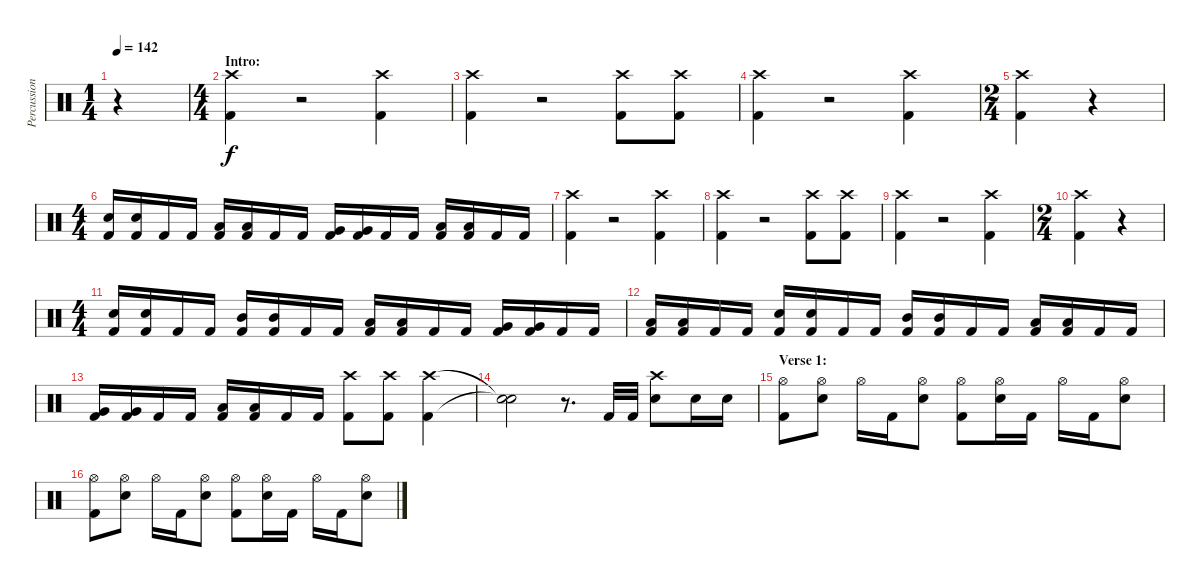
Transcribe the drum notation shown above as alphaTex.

\track ("Percussion" "Percussion") {instrument percussion}
\staff {score}
\articulation defaults
\ts (1 4)
\tempo 142
\clef neutral
\ks c
r.4{dy f} |
\ts (4 4)
\section ("" "Intro:")
("Crash high (hit)" "Kick (hit) 2").4 r.2 ("Crash high (hit)" "Kick (hit) 2").4 |
("Crash high (hit)" "Kick (hit) 2").4 r.2 ("Crash high (hit)" "Kick (hit) 2").8 ("Crash high (hit)" "Kick (hit) 2").8 |
("Crash high (hit)" "Kick (hit) 2").4 r.2 ("Crash high (hit)" "Kick (hit) 2").4 |
\ts (2 4)
("Crash high (hit)" "Kick (hit) 2").4 r.4 |
\ts (4 4)
("Snare (hit) 2" "Kick (hit) 2").16 ("Snare (hit) 2" "Kick (hit) 2").16 "Kick (hit) 2".16 "Kick (hit) 2".16 ("Low Tom (hit)" "Kick (hit) 2").16 ("Low Tom (hit)" "Kick (hit) 2").16 "Kick (hit) 2".16 "Kick (hit) 2".16 ("Very Low Tom (hit)" "Kick (hit) 2").16 ("Very Low Tom (hit)" "Kick (hit) 2").16 "Kick (hit) 2".16 "Kick (hit) 2".16 ("Low Floor Tom (hit)" "Kick (hit) 2").16 ("Low Floor Tom (hit)" "Kick (hit) 2").16 "Kick (hit) 2".16 "Kick (hit) 2".16 |
("Crash high (hit)" "Kick (hit) 2").4 r.2 ("Crash high (hit)" "Kick (hit) 2").4 |
("Crash high (hit)" "Kick (hit) 2").4 r.2 ("Crash high (hit)" "Kick (hit) 2").8 ("Crash high (hit)" "Kick (hit) 2").8 |
("Crash high (hit)" "Kick (hit) 2").4 r.2 ("Crash high (hit)" "Kick (hit) 2").4 |
\ts (2 4)
("Crash high (hit)" "Kick (hit) 2").4 r.4 |
\ts (4 4)
("Snare (hit) 2" "Kick (hit) 2").16 ("Snare (hit) 2" "Kick (hit) 2").16 "Kick (hit) 2".16 "Kick (hit) 2".16 ("Mid Tom (hit)" "Kick (hit) 2").16 ("Mid Tom (hit)" "Kick (hit) 2").16 "Kick (hit) 2".16 "Kick (hit) 2".16 ("Low Tom (hit)" "Kick (hit) 2").16 ("Low Tom (hit)" "Kick (hit) 2").16 "Kick (hit) 2".16 "Kick (hit) 2".16 ("Very Low Tom (hit)" "Kick (hit) 2").16 ("Very Low Tom (hit)" "Kick (hit) 2").16 "Kick (hit) 2".16 "Kick (hit) 2".16 |
("Low Floor Tom (hit)" "Kick (hit) 2").16 ("Low Floor Tom (hit)" "Kick (hit) 2").16 "Kick (hit) 2".16 "Kick (hit) 2".16 ("Snare (hit) 2" "Kick (hit) 2").16 ("Snare (hit) 2" "Kick (hit) 2").16 "Kick (hit) 2".16 "Kick (hit) 2".16 ("Mid Tom (hit)" "Kick (hit) 2").16 ("Mid Tom (hit)" "Kick (hit) 2").16 "Kick (hit) 2".16 "Kick (hit) 2".16 ("Low Tom (hit)" "Kick (hit) 2").16 ("Low Tom (hit)" "Kick (hit) 2").16 "Kick (hit) 2".16 "Kick (hit) 2".16 |
("Very Low Tom (hit)" "Kick (hit) 2").16 ("Very Low Tom (hit)" "Kick (hit) 2").16 "Kick (hit) 2".16 "Kick (hit) 2".16 ("Low Floor Tom (hit)" "Kick (hit) 2").16 ("Low Floor Tom (hit)" "Kick (hit) 2").16 "Kick (hit) 2".16 "Kick (hit) 2".16 ("Crash high (hit)" "Kick (hit) 2").8 ("Crash high (hit)" "Kick (hit) 2").8 ("Crash high (hit)" "Kick (hit) 2").4 |
("Snare (hit)"{t} "Snare (hit)"{t}).2 r.8{d} "Kick (hit) 2".32 "Kick (hit) 2".32 ("Crash high (hit)" "Snare (hit) 2").8 "Snare (hit) 2".16 "Snare (hit) 2".16 |
\section ("" "Verse 1:")
("Hi-Hat (open)" "Kick (hit) 2").8 ("Hi-Hat (open)" "Snare (hit) 2").8 "Hi-Hat (open)".16 "Kick (hit) 2".16 ("Hi-Hat (open)" "Snare (hit) 2").8 ("Hi-Hat (open)" "Kick (hit) 2").8 ("Hi-Hat (open)" "Snare (hit) 2").16 "Kick (hit) 2".16 "Hi-Hat (open)".16 "Kick (hit) 2".16 ("Hi-Hat (open)" "Snare (hit) 2").8 |
("Hi-Hat (open)" "Kick (hit) 2").8 ("Hi-Hat (open)" "Snare (hit) 2").8 "Hi-Hat (open)".16 "Kick (hit) 2".16 ("Hi-Hat (open)" "Snare (hit) 2").8 ("Hi-Hat (open)" "Kick (hit) 2").8 ("Hi-Hat (open)" "Snare (hit) 2").16 "Kick (hit) 2".16 "Hi-Hat (open)".16 "Kick (hit) 2".16 ("Hi-Hat (open)" "Snare (hit) 2").8
